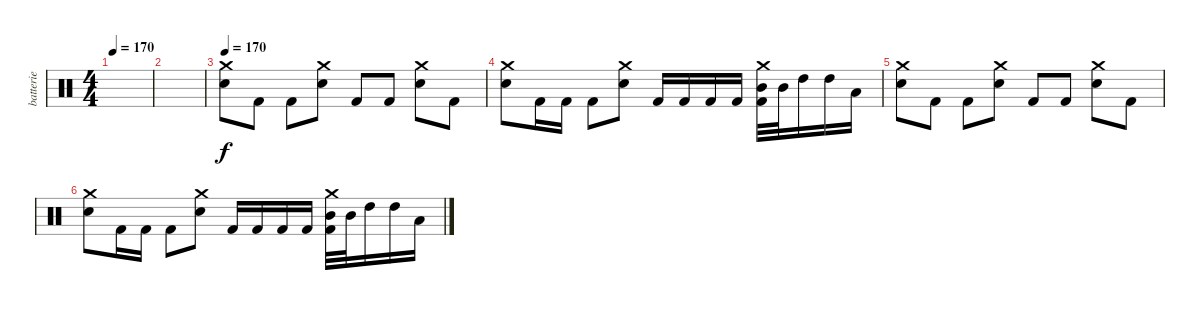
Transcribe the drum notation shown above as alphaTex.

\track ("batterie" "batterie") {instrument percussion}
\staff {score}
\articulation defaults
\ts (4 4)
\tempo 170
\clef neutral
\ks c
|
|
\tempo 170
("Crash medium (hit)" "Electric Snare (hit)").8 "Kick (hit) 2".8 "Kick (hit) 2".8 ("Crash medium (hit)" "Electric Snare (hit)").8 "Kick (hit) 2".8 "Kick (hit) 2".8 ("Crash medium (hit)" "Electric Snare (hit)").8 "Kick (hit) 2".8 |
("Crash medium (hit)" "Electric Snare (hit)").8 "Kick (hit) 2".16 "Kick (hit) 2".16 "Kick (hit) 2".8 ("Crash medium (hit)" "Electric Snare (hit)").8 "Kick (hit) 2".16 "Kick (hit) 2".16 "Kick (hit) 2".16 "Kick (hit) 2".16 ("Crash medium (hit)" "Mid Tom (hit)" "Kick (hit) 2").32 "Mid Tom (hit)".32 "High Tom (hit)".16 "High Tom (hit)".16 "Low Floor Tom (hit)".16 |
("Crash medium (hit)" "Electric Snare (hit)").8 "Kick (hit) 2".8 "Kick (hit) 2".8 ("Crash medium (hit)" "Electric Snare (hit)").8 "Kick (hit) 2".8 "Kick (hit) 2".8 ("Crash medium (hit)" "Electric Snare (hit)").8 "Kick (hit) 2".8 |
("Crash medium (hit)" "Electric Snare (hit)").8 "Kick (hit) 2".16 "Kick (hit) 2".16 "Kick (hit) 2".8 ("Crash medium (hit)" "Electric Snare (hit)").8 "Kick (hit) 2".16 "Kick (hit) 2".16 "Kick (hit) 2".16 "Kick (hit) 2".16 ("Crash medium (hit)" "Mid Tom (hit)" "Kick (hit) 2").32 "Mid Tom (hit)".32 "High Tom (hit)".16 "High Tom (hit)".16 "Low Floor Tom (hit)".16
